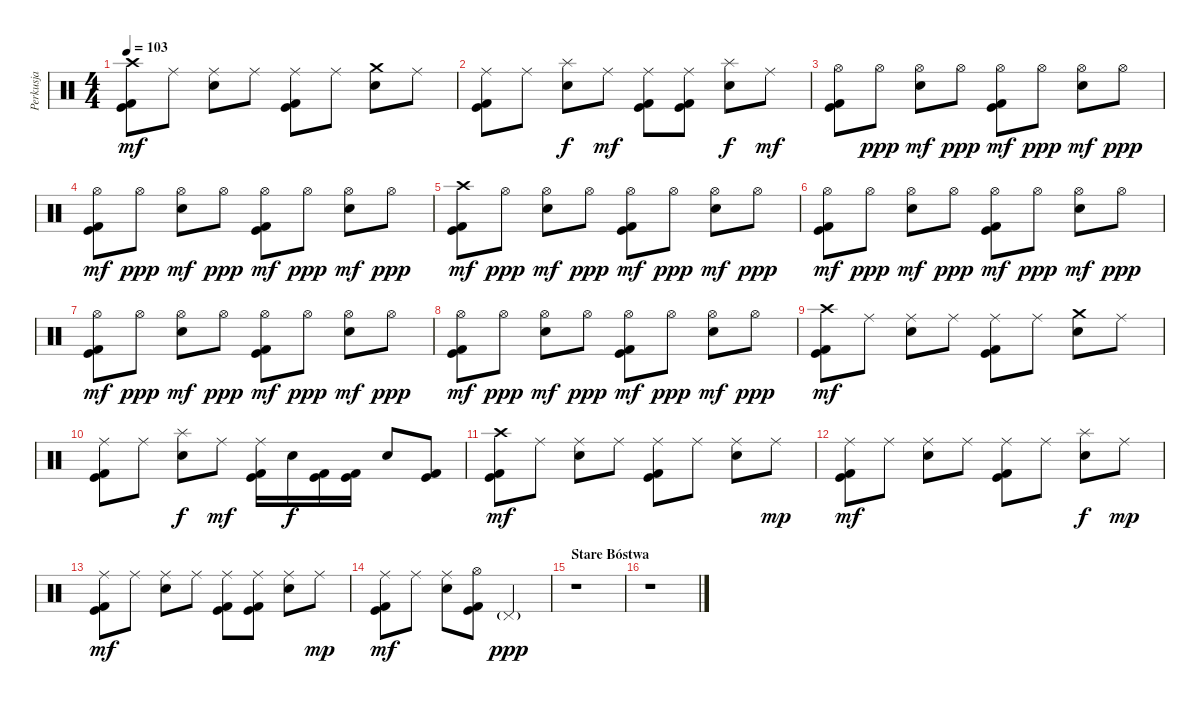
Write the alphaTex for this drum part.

\track ("Perkusja" "Perkusja") {instrument percussion}
\staff {score}
\articulation defaults
\ts (4 4)
\tempo 103
\clef neutral
\ks c
("Kick (hit) 2" "Kick (hit)" "Crash high (hit)").8{dy mf} "Ride (middle)".8 ("Snare (hit) 2" "Ride (middle)").8 "Ride (middle)".8 ("Kick (hit) 2" "Kick (hit)" "Ride (middle)").8 "Ride (middle)".8 ("Snare (hit) 2" "Crash medium (hit)").8 "Ride (middle)".8 |
("Kick (hit) 2" "Kick (hit)" "Ride (middle)").8 "Ride (middle)".8 ("Snare (hit) 2" "Splash (hit)").8{dy f} "Ride (middle)".8{dy mf} ("Kick (hit) 2" "Kick (hit)" "Ride (middle)").8 ("Kick (hit) 2" "Kick (hit)" "Ride (middle)").8 ("Snare (hit) 2" "Splash (hit)").8{dy f} "Ride (middle)".8{dy mf} |
("Kick (hit) 2" "Kick (hit)" "Hi-Hat (open)").8 "Hi-Hat (open)".8{dy ppp} ("Snare (hit) 2" "Hi-Hat (open)").8{dy mf} "Hi-Hat (open)".8{dy ppp} ("Kick (hit) 2" "Kick (hit)" "Hi-Hat (open)").8{dy mf} "Hi-Hat (open)".8{dy ppp} ("Snare (hit) 2" "Hi-Hat (open)").8{dy mf} "Hi-Hat (open)".8{dy ppp} |
("Kick (hit) 2" "Kick (hit)" "Hi-Hat (open)").8{dy mf} "Hi-Hat (open)".8{dy ppp} ("Snare (hit) 2" "Hi-Hat (open)").8{dy mf} "Hi-Hat (open)".8{dy ppp} ("Kick (hit) 2" "Kick (hit)" "Hi-Hat (open)").8{dy mf} "Hi-Hat (open)".8{dy ppp} ("Snare (hit) 2" "Hi-Hat (open)").8{dy mf} "Hi-Hat (open)".8{dy ppp} |
("Kick (hit) 2" "Kick (hit)" "Crash high (hit)").8{dy mf} "Hi-Hat (open)".8{dy ppp} ("Snare (hit) 2" "Hi-Hat (open)").8{dy mf} "Hi-Hat (open)".8{dy ppp} ("Kick (hit) 2" "Kick (hit)" "Hi-Hat (open)").8{dy mf} "Hi-Hat (open)".8{dy ppp} ("Snare (hit) 2" "Hi-Hat (open)").8{dy mf} "Hi-Hat (open)".8{dy ppp} |
("Kick (hit) 2" "Kick (hit)" "Hi-Hat (open)").8{dy mf} "Hi-Hat (open)".8{dy ppp} ("Snare (hit) 2" "Hi-Hat (open)").8{dy mf} "Hi-Hat (open)".8{dy ppp} ("Kick (hit) 2" "Kick (hit)" "Hi-Hat (open)").8{dy mf} "Hi-Hat (open)".8{dy ppp} ("Snare (hit) 2" "Hi-Hat (open)").8{dy mf} "Hi-Hat (open)".8{dy ppp} |
("Kick (hit) 2" "Kick (hit)" "Hi-Hat (open)").8{dy mf} "Hi-Hat (open)".8{dy ppp} ("Snare (hit) 2" "Hi-Hat (open)").8{dy mf} "Hi-Hat (open)".8{dy ppp} ("Kick (hit) 2" "Kick (hit)" "Hi-Hat (open)").8{dy mf} "Hi-Hat (open)".8{dy ppp} ("Snare (hit) 2" "Hi-Hat (open)").8{dy mf} "Hi-Hat (open)".8{dy ppp} |
("Kick (hit) 2" "Kick (hit)" "Hi-Hat (open)").8{dy mf} "Hi-Hat (open)".8{dy ppp} ("Snare (hit) 2" "Hi-Hat (open)").8{dy mf} "Hi-Hat (open)".8{dy ppp} ("Kick (hit) 2" "Kick (hit)" "Hi-Hat (open)").8{dy mf} "Hi-Hat (open)".8{dy ppp} ("Snare (hit) 2" "Hi-Hat (open)").8{dy mf} "Hi-Hat (open)".8{dy ppp} |
("Kick (hit) 2" "Kick (hit)" "Crash high (hit)").8{dy mf} "Ride (middle)".8 ("Snare (hit) 2" "Ride (middle)").8 "Ride (middle)".8 ("Kick (hit) 2" "Kick (hit)" "Ride (middle)").8 "Ride (middle)".8 ("Snare (hit) 2" "Crash medium (hit)").8 "Ride (middle)".8 |
("Kick (hit) 2" "Kick (hit)" "Ride (middle)").8 "Ride (middle)".8 ("Snare (hit) 2" "Splash (hit)").8{dy f} "Ride (middle)".8{dy mf} ("Kick (hit) 2" "Kick (hit)" "Ride (middle)").16 "Snare (hit) 2".16{dy f} ("Kick (hit) 2" "Kick (hit)").16 ("Kick (hit) 2" "Kick (hit)").16 "Snare (hit) 2".8 ("Kick (hit) 2" "Kick (hit)").8 |
("Kick (hit) 2" "Kick (hit)" "Crash high (hit)").8{dy mf} "Ride (middle)".8 ("Snare (hit) 2" "Ride (middle)").8 "Ride (middle)".8 ("Kick (hit) 2" "Kick (hit)" "Ride (middle)").8 "Ride (middle)".8 ("Snare (hit) 2" "Ride (middle)").8 "Ride (middle)".8{dy mp} |
("Kick (hit) 2" "Kick (hit)" "Ride (middle)").8{dy mf} "Ride (middle)".8 ("Snare (hit) 2" "Ride (middle)").8 "Ride (middle)".8 ("Kick (hit) 2" "Kick (hit)" "Ride (middle)").8 "Ride (middle)".8 ("Snare (hit) 2" "Splash (hit)").8{dy f} "Ride (middle)".8{dy mp} |
("Kick (hit) 2" "Kick (hit)" "Ride (middle)").8{dy mf} "Ride (middle)".8 ("Snare (hit) 2" "Ride (middle)").8 "Ride (middle)".8 ("Kick (hit) 2" "Kick (hit)" "Ride (middle)").8 ("Kick (hit) 2" "Kick (hit)" "Ride (middle)").8 ("Snare (hit) 2" "Ride (middle)").8 "Ride (middle)".8{dy mp} |
("Kick (hit) 2" "Kick (hit)" "Ride (middle)").8{dy mf} "Ride (middle)".8 ("Snare (hit) 2" "Ride (middle)").8 ("Kick (hit) 2" "Kick (hit)" "Hi-Hat (open)").8 "Pedal Hi-Hat (hit)"{g}.2{dy ppp} |
\section ("" "Stare Bóstwa")
r.1 |
r.1
